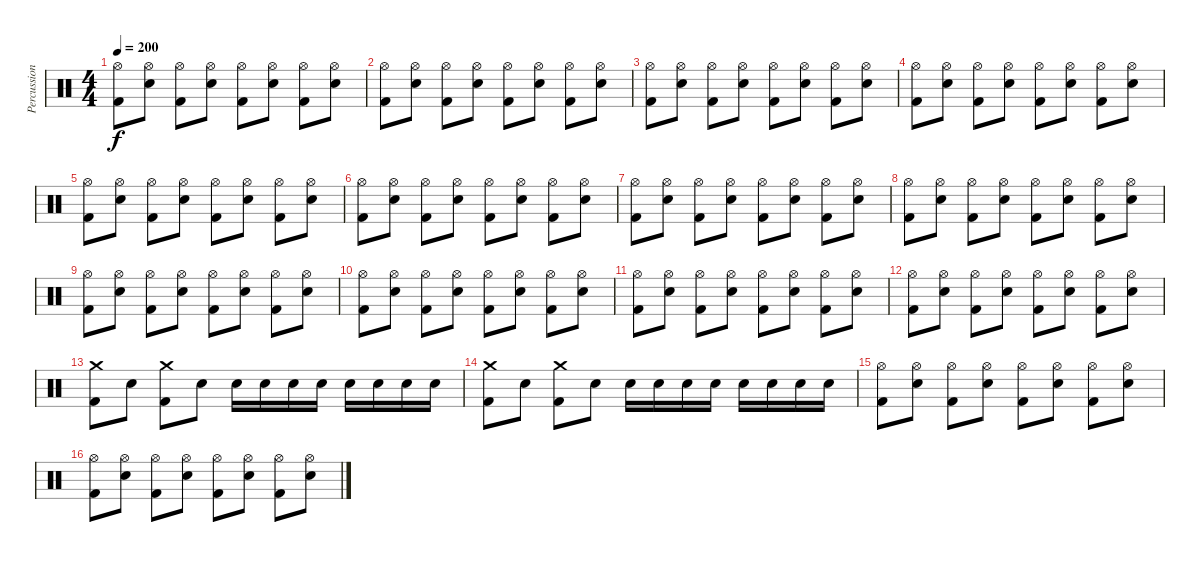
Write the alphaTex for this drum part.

\track ("Percussion" "Percussion") {instrument percussion}
\staff {score}
\articulation defaults
\ts (4 4)
\tempo 200
\clef neutral
\ks c
("Hi-Hat (open)" "Kick (hit) 2").8{dy f} ("Hi-Hat (open)" "Snare (hit) 2").8 ("Hi-Hat (open)" "Kick (hit) 2").8 ("Hi-Hat (open)" "Snare (hit) 2").8 ("Hi-Hat (open)" "Kick (hit) 2").8 ("Hi-Hat (open)" "Snare (hit) 2").8 ("Hi-Hat (open)" "Kick (hit) 2").8 ("Hi-Hat (open)" "Snare (hit) 2").8 |
("Hi-Hat (open)" "Kick (hit) 2").8 ("Hi-Hat (open)" "Snare (hit) 2").8 ("Hi-Hat (open)" "Kick (hit) 2").8 ("Hi-Hat (open)" "Snare (hit) 2").8 ("Hi-Hat (open)" "Kick (hit) 2").8 ("Hi-Hat (open)" "Snare (hit) 2").8 ("Hi-Hat (open)" "Kick (hit) 2").8 ("Hi-Hat (open)" "Snare (hit) 2").8 |
("Hi-Hat (open)" "Kick (hit) 2").8 ("Hi-Hat (open)" "Snare (hit) 2").8 ("Hi-Hat (open)" "Kick (hit) 2").8 ("Hi-Hat (open)" "Snare (hit) 2").8 ("Hi-Hat (open)" "Kick (hit) 2").8 ("Hi-Hat (open)" "Snare (hit) 2").8 ("Hi-Hat (open)" "Kick (hit) 2").8 ("Hi-Hat (open)" "Snare (hit) 2").8 |
("Hi-Hat (open)" "Kick (hit) 2").8 ("Hi-Hat (open)" "Snare (hit) 2").8 ("Hi-Hat (open)" "Kick (hit) 2").8 ("Hi-Hat (open)" "Snare (hit) 2").8 ("Hi-Hat (open)" "Kick (hit) 2").8 ("Hi-Hat (open)" "Snare (hit) 2").8 ("Hi-Hat (open)" "Kick (hit) 2").8 ("Hi-Hat (open)" "Snare (hit) 2").8 |
("Hi-Hat (open)" "Kick (hit) 2").8 ("Hi-Hat (open)" "Snare (hit) 2").8 ("Hi-Hat (open)" "Kick (hit) 2").8 ("Hi-Hat (open)" "Snare (hit) 2").8 ("Hi-Hat (open)" "Kick (hit) 2").8 ("Hi-Hat (open)" "Snare (hit) 2").8 ("Hi-Hat (open)" "Kick (hit) 2").8 ("Hi-Hat (open)" "Snare (hit) 2").8 |
("Hi-Hat (open)" "Kick (hit) 2").8 ("Hi-Hat (open)" "Snare (hit) 2").8 ("Hi-Hat (open)" "Kick (hit) 2").8 ("Hi-Hat (open)" "Snare (hit) 2").8 ("Hi-Hat (open)" "Kick (hit) 2").8 ("Hi-Hat (open)" "Snare (hit) 2").8 ("Hi-Hat (open)" "Kick (hit) 2").8 ("Hi-Hat (open)" "Snare (hit) 2").8 |
("Hi-Hat (open)" "Kick (hit) 2").8 ("Hi-Hat (open)" "Snare (hit) 2").8 ("Hi-Hat (open)" "Kick (hit) 2").8 ("Hi-Hat (open)" "Snare (hit) 2").8 ("Hi-Hat (open)" "Kick (hit) 2").8 ("Hi-Hat (open)" "Snare (hit) 2").8 ("Hi-Hat (open)" "Kick (hit) 2").8 ("Hi-Hat (open)" "Snare (hit) 2").8 |
("Hi-Hat (open)" "Kick (hit) 2").8 ("Hi-Hat (open)" "Snare (hit) 2").8 ("Hi-Hat (open)" "Kick (hit) 2").8 ("Hi-Hat (open)" "Snare (hit) 2").8 ("Hi-Hat (open)" "Kick (hit) 2").8 ("Hi-Hat (open)" "Snare (hit) 2").8 ("Hi-Hat (open)" "Kick (hit) 2").8 ("Hi-Hat (open)" "Snare (hit) 2").8 |
("Hi-Hat (open)" "Kick (hit) 2").8 ("Hi-Hat (open)" "Snare (hit) 2").8 ("Hi-Hat (open)" "Kick (hit) 2").8 ("Hi-Hat (open)" "Snare (hit) 2").8 ("Hi-Hat (open)" "Kick (hit) 2").8 ("Hi-Hat (open)" "Snare (hit) 2").8 ("Hi-Hat (open)" "Kick (hit) 2").8 ("Hi-Hat (open)" "Snare (hit) 2").8 |
("Hi-Hat (open)" "Kick (hit) 2").8 ("Hi-Hat (open)" "Snare (hit) 2").8 ("Hi-Hat (open)" "Kick (hit) 2").8 ("Hi-Hat (open)" "Snare (hit) 2").8 ("Hi-Hat (open)" "Kick (hit) 2").8 ("Hi-Hat (open)" "Snare (hit) 2").8 ("Hi-Hat (open)" "Kick (hit) 2").8 ("Hi-Hat (open)" "Snare (hit) 2").8 |
("Hi-Hat (open)" "Kick (hit) 2").8 ("Hi-Hat (open)" "Snare (hit) 2").8 ("Hi-Hat (open)" "Kick (hit) 2").8 ("Hi-Hat (open)" "Snare (hit) 2").8 ("Hi-Hat (open)" "Kick (hit) 2").8 ("Hi-Hat (open)" "Snare (hit) 2").8 ("Hi-Hat (open)" "Kick (hit) 2").8 ("Hi-Hat (open)" "Snare (hit) 2").8 |
("Hi-Hat (open)" "Kick (hit) 2").8 ("Hi-Hat (open)" "Snare (hit) 2").8 ("Hi-Hat (open)" "Kick (hit) 2").8 ("Hi-Hat (open)" "Snare (hit) 2").8 ("Hi-Hat (open)" "Kick (hit) 2").8 ("Hi-Hat (open)" "Snare (hit) 2").8 ("Hi-Hat (open)" "Kick (hit) 2").8 ("Hi-Hat (open)" "Snare (hit) 2").8 |
("Crash medium (hit)" "Kick (hit) 2").8 "Snare (hit) 2".8 ("Crash medium (hit)" "Kick (hit) 2").8 "Snare (hit) 2".8 "Snare (hit) 2".16 "Snare (hit) 2".16 "Snare (hit) 2".16 "Snare (hit) 2".16 "Snare (hit) 2".16 "Snare (hit) 2".16 "Snare (hit) 2".16 "Snare (hit) 2".16 |
("Crash medium (hit)" "Kick (hit) 2").8 "Snare (hit) 2".8 ("Crash medium (hit)" "Kick (hit) 2").8 "Snare (hit) 2".8 "Snare (hit) 2".16 "Snare (hit) 2".16 "Snare (hit) 2".16 "Snare (hit) 2".16 "Snare (hit) 2".16 "Snare (hit) 2".16 "Snare (hit) 2".16 "Snare (hit) 2".16 |
("Hi-Hat (open)" "Kick (hit) 2").8 ("Hi-Hat (open)" "Snare (hit) 2").8 ("Hi-Hat (open)" "Kick (hit) 2").8 ("Hi-Hat (open)" "Snare (hit) 2").8 ("Hi-Hat (open)" "Kick (hit) 2").8 ("Hi-Hat (open)" "Snare (hit) 2").8 ("Hi-Hat (open)" "Kick (hit) 2").8 ("Hi-Hat (open)" "Snare (hit) 2").8 |
("Hi-Hat (open)" "Kick (hit) 2").8 ("Hi-Hat (open)" "Snare (hit) 2").8 ("Hi-Hat (open)" "Kick (hit) 2").8 ("Hi-Hat (open)" "Snare (hit) 2").8 ("Hi-Hat (open)" "Kick (hit) 2").8 ("Hi-Hat (open)" "Snare (hit) 2").8 ("Hi-Hat (open)" "Kick (hit) 2").8 ("Hi-Hat (open)" "Snare (hit) 2").8
